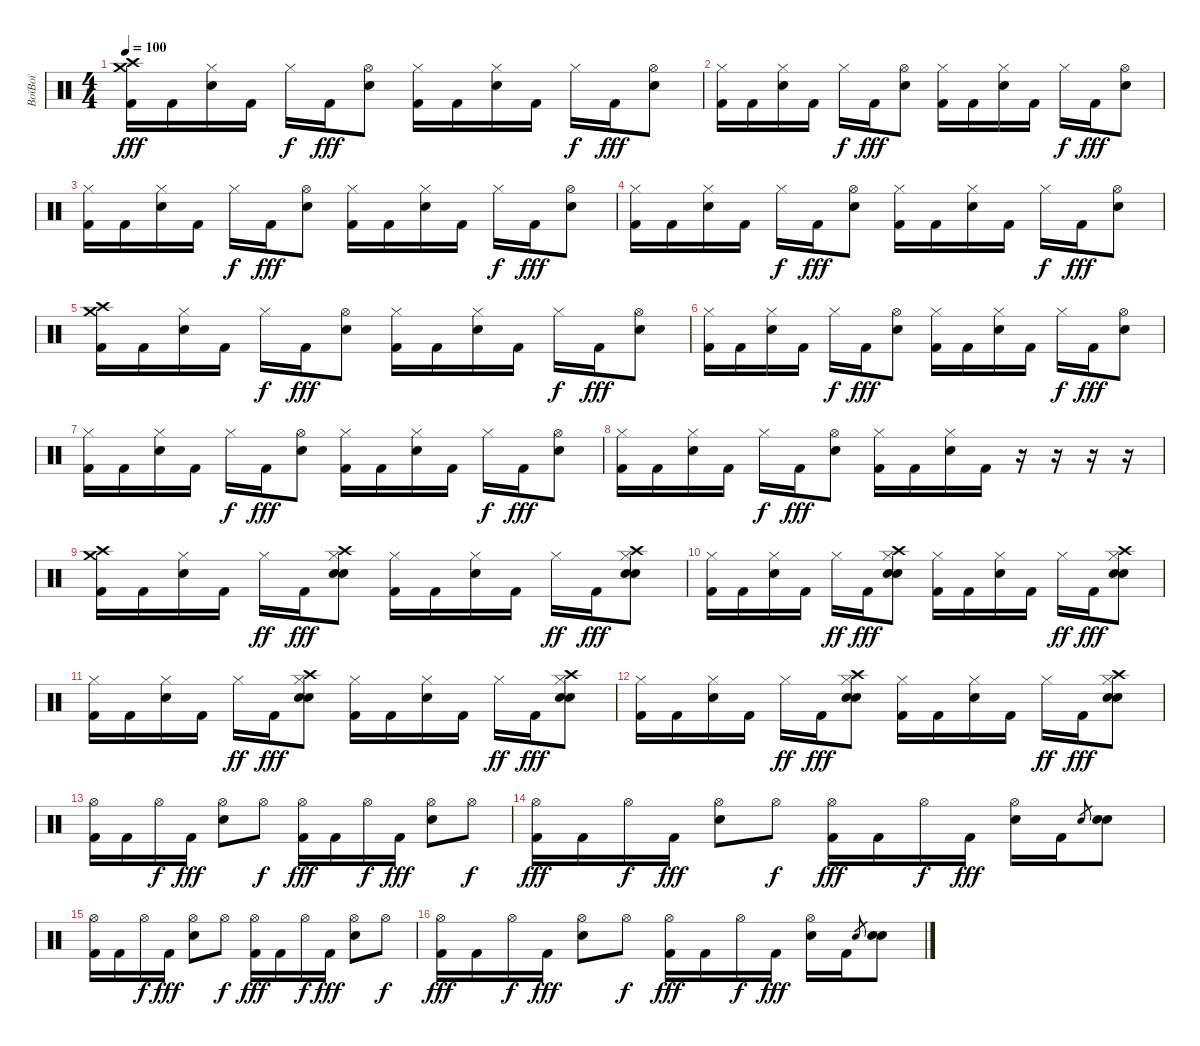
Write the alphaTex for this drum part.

\track ("BoïBoï" "BoïBoï") {instrument percussion}
\staff {score}
\articulation defaults
\ts (4 4)
\tempo 100
\clef neutral
\ks c
("Crash medium (hit)" "Crash high (hit)" "Kick (hit) 2").16{dy fff} "Kick (hit) 2".16 ("Hi-Hat (closed)" "Electric Snare (hit)").16 "Kick (hit) 2".16 "Hi-Hat (closed)".16{dy f} "Kick (hit) 2".16{dy fff} ("Hi-Hat (open)" "Electric Snare (hit)").8 ("Hi-Hat (closed)" "Kick (hit) 2").16 "Kick (hit) 2".16 ("Hi-Hat (closed)" "Electric Snare (hit)").16 "Kick (hit) 2".16 "Hi-Hat (closed)".16{dy f} "Kick (hit) 2".16{dy fff} ("Hi-Hat (open)" "Electric Snare (hit)").8 |
("Hi-Hat (closed)" "Kick (hit) 2").16 "Kick (hit) 2".16 ("Hi-Hat (closed)" "Electric Snare (hit)").16 "Kick (hit) 2".16 "Hi-Hat (closed)".16{dy f} "Kick (hit) 2".16{dy fff} ("Hi-Hat (open)" "Electric Snare (hit)").8 ("Hi-Hat (closed)" "Kick (hit) 2").16 "Kick (hit) 2".16 ("Hi-Hat (closed)" "Electric Snare (hit)").16 "Kick (hit) 2".16 "Hi-Hat (closed)".16{dy f} "Kick (hit) 2".16{dy fff} ("Hi-Hat (open)" "Electric Snare (hit)").8 |
("Hi-Hat (closed)" "Kick (hit) 2").16 "Kick (hit) 2".16 ("Hi-Hat (closed)" "Electric Snare (hit)").16 "Kick (hit) 2".16 "Hi-Hat (closed)".16{dy f} "Kick (hit) 2".16{dy fff} ("Hi-Hat (open)" "Electric Snare (hit)").8 ("Hi-Hat (closed)" "Kick (hit) 2").16 "Kick (hit) 2".16 ("Hi-Hat (closed)" "Electric Snare (hit)").16 "Kick (hit) 2".16 "Hi-Hat (closed)".16{dy f} "Kick (hit) 2".16{dy fff} ("Hi-Hat (open)" "Electric Snare (hit)").8 |
("Hi-Hat (closed)" "Kick (hit) 2").16 "Kick (hit) 2".16 ("Hi-Hat (closed)" "Electric Snare (hit)").16 "Kick (hit) 2".16 "Hi-Hat (closed)".16{dy f} "Kick (hit) 2".16{dy fff} ("Hi-Hat (open)" "Electric Snare (hit)").8 ("Hi-Hat (closed)" "Kick (hit) 2").16 "Kick (hit) 2".16 ("Hi-Hat (closed)" "Electric Snare (hit)").16 "Kick (hit) 2".16 "Hi-Hat (closed)".16{dy f} "Kick (hit) 2".16{dy fff} ("Hi-Hat (open)" "Electric Snare (hit)").8 |
("Crash medium (hit)" "Crash high (hit)" "Kick (hit) 2").16 "Kick (hit) 2".16 ("Hi-Hat (closed)" "Electric Snare (hit)").16 "Kick (hit) 2".16 "Hi-Hat (closed)".16{dy f} "Kick (hit) 2".16{dy fff} ("Hi-Hat (open)" "Electric Snare (hit)").8 ("Hi-Hat (closed)" "Kick (hit) 2").16 "Kick (hit) 2".16 ("Hi-Hat (closed)" "Electric Snare (hit)").16 "Kick (hit) 2".16 "Hi-Hat (closed)".16{dy f} "Kick (hit) 2".16{dy fff} ("Hi-Hat (open)" "Electric Snare (hit)").8 |
("Hi-Hat (closed)" "Kick (hit) 2").16 "Kick (hit) 2".16 ("Hi-Hat (closed)" "Electric Snare (hit)").16 "Kick (hit) 2".16 "Hi-Hat (closed)".16{dy f} "Kick (hit) 2".16{dy fff} ("Hi-Hat (open)" "Electric Snare (hit)").8 ("Hi-Hat (closed)" "Kick (hit) 2").16 "Kick (hit) 2".16 ("Hi-Hat (closed)" "Electric Snare (hit)").16 "Kick (hit) 2".16 "Hi-Hat (closed)".16{dy f} "Kick (hit) 2".16{dy fff} ("Hi-Hat (open)" "Electric Snare (hit)").8 |
("Hi-Hat (closed)" "Kick (hit) 2").16 "Kick (hit) 2".16 ("Hi-Hat (closed)" "Electric Snare (hit)").16 "Kick (hit) 2".16 "Hi-Hat (closed)".16{dy f} "Kick (hit) 2".16{dy fff} ("Hi-Hat (open)" "Electric Snare (hit)").8 ("Hi-Hat (closed)" "Kick (hit) 2").16 "Kick (hit) 2".16 ("Hi-Hat (closed)" "Electric Snare (hit)").16 "Kick (hit) 2".16 "Hi-Hat (closed)".16{dy f} "Kick (hit) 2".16{dy fff} ("Hi-Hat (open)" "Electric Snare (hit)").8 |
("Hi-Hat (closed)" "Kick (hit) 2").16 "Kick (hit) 2".16 ("Hi-Hat (closed)" "Electric Snare (hit)").16 "Kick (hit) 2".16 "Hi-Hat (closed)".16{dy f} "Kick (hit) 2".16{dy fff} ("Hi-Hat (open)" "Electric Snare (hit)").8 ("Hi-Hat (closed)" "Kick (hit) 2").16 "Kick (hit) 2".16 ("Hi-Hat (closed)" "Electric Snare (hit)").16 "Kick (hit) 2".16 r.16 r.16 r.16 r.16 |
("Crash medium (hit)" "Crash high (hit)" "Kick (hit) 2").16 "Kick (hit) 2".16 ("Hi-Hat (closed)" "Electric Snare (hit)").16 "Kick (hit) 2".16 "Hi-Hat (closed)".16{dy ff} "Kick (hit) 2".16{dy fff} ("Hi-Hat (closed)" "Crash high (hit)" "Electric Snare (hit)" "Snare (hit) 2").8 ("Hi-Hat (closed)" "Kick (hit) 2").16 "Kick (hit) 2".16 ("Hi-Hat (closed)" "Electric Snare (hit)").16 "Kick (hit) 2".16 "Hi-Hat (closed)".16{dy ff} "Kick (hit) 2".16{dy fff} ("Hi-Hat (closed)" "Crash high (hit)" "Electric Snare (hit)" "Snare (hit) 2").8 |
("Hi-Hat (closed)" "Kick (hit) 2").16 "Kick (hit) 2".16 ("Hi-Hat (closed)" "Electric Snare (hit)").16 "Kick (hit) 2".16 "Hi-Hat (closed)".16{dy ff} "Kick (hit) 2".16{dy fff} ("Hi-Hat (closed)" "Crash high (hit)" "Electric Snare (hit)" "Snare (hit) 2").8 ("Hi-Hat (closed)" "Kick (hit) 2").16 "Kick (hit) 2".16 ("Hi-Hat (closed)" "Electric Snare (hit)").16 "Kick (hit) 2".16 "Hi-Hat (closed)".16{dy ff} "Kick (hit) 2".16{dy fff} ("Hi-Hat (closed)" "Crash high (hit)" "Electric Snare (hit)" "Snare (hit) 2").8 |
("Hi-Hat (closed)" "Kick (hit) 2").16 "Kick (hit) 2".16 ("Hi-Hat (closed)" "Electric Snare (hit)").16 "Kick (hit) 2".16 "Hi-Hat (closed)".16{dy ff} "Kick (hit) 2".16{dy fff} ("Hi-Hat (closed)" "Crash high (hit)" "Electric Snare (hit)" "Snare (hit) 2").8 ("Hi-Hat (closed)" "Kick (hit) 2").16 "Kick (hit) 2".16 ("Hi-Hat (closed)" "Electric Snare (hit)").16 "Kick (hit) 2".16 "Hi-Hat (closed)".16{dy ff} "Kick (hit) 2".16{dy fff} ("Hi-Hat (closed)" "Crash high (hit)" "Electric Snare (hit)" "Snare (hit) 2").8 |
("Hi-Hat (closed)" "Kick (hit) 2").16 "Kick (hit) 2".16 ("Hi-Hat (closed)" "Electric Snare (hit)").16 "Kick (hit) 2".16 "Hi-Hat (closed)".16{dy ff} "Kick (hit) 2".16{dy fff} ("Hi-Hat (closed)" "Crash high (hit)" "Electric Snare (hit)" "Snare (hit) 2").8 ("Hi-Hat (closed)" "Kick (hit) 2").16 "Kick (hit) 2".16 ("Hi-Hat (closed)" "Electric Snare (hit)").16 "Kick (hit) 2".16 "Hi-Hat (closed)".16{dy ff} "Kick (hit) 2".16{dy fff} ("Hi-Hat (closed)" "Crash high (hit)" "Electric Snare (hit)" "Snare (hit) 2").8 |
("Hi-Hat (open)" "Kick (hit) 2").16 "Kick (hit) 2".16 "Hi-Hat (open)".16{dy f} "Kick (hit) 2".16{dy fff} ("Hi-Hat (open)" "Electric Snare (hit)").8 "Hi-Hat (open)".8{dy f} ("Hi-Hat (open)" "Kick (hit) 2").16{dy fff} "Kick (hit) 2".16 "Hi-Hat (open)".16{dy f} "Kick (hit) 2".16{dy fff} ("Hi-Hat (open)" "Electric Snare (hit)").8 "Hi-Hat (open)".8{dy f} |
("Hi-Hat (open)" "Kick (hit) 2").16{dy fff} "Kick (hit) 2".16 "Hi-Hat (open)".16{dy f} "Kick (hit) 2".16{dy fff} ("Hi-Hat (open)" "Electric Snare (hit)").8 "Hi-Hat (open)".8{dy f} ("Hi-Hat (open)" "Kick (hit) 2").16{dy fff} "Kick (hit) 2".16 "Hi-Hat (open)".16{dy f} "Kick (hit) 2".16{dy fff} ("Hi-Hat (open)" "Electric Snare (hit)").16 "Kick (hit) 2".16 "Electric Snare (hit)".8{gr} ("Electric Snare (hit)" "Snare (hit) 2").8 |
("Hi-Hat (open)" "Kick (hit) 2").16 "Kick (hit) 2".16 "Hi-Hat (open)".16{dy f} "Kick (hit) 2".16{dy fff} ("Hi-Hat (open)" "Electric Snare (hit)").8 "Hi-Hat (open)".8{dy f} ("Hi-Hat (open)" "Kick (hit) 2").16{dy fff} "Kick (hit) 2".16 "Hi-Hat (open)".16{dy f} "Kick (hit) 2".16{dy fff} ("Hi-Hat (open)" "Electric Snare (hit)").8 "Hi-Hat (open)".8{dy f} |
("Hi-Hat (open)" "Kick (hit) 2").16{dy fff} "Kick (hit) 2".16 "Hi-Hat (open)".16{dy f} "Kick (hit) 2".16{dy fff} ("Hi-Hat (open)" "Electric Snare (hit)").8 "Hi-Hat (open)".8{dy f} ("Hi-Hat (open)" "Kick (hit) 2").16{dy fff} "Kick (hit) 2".16 "Hi-Hat (open)".16{dy f} "Kick (hit) 2".16{dy fff} ("Hi-Hat (open)" "Electric Snare (hit)").16 "Kick (hit) 2".16 "Electric Snare (hit)".8{gr} ("Electric Snare (hit)" "Snare (hit) 2").8
